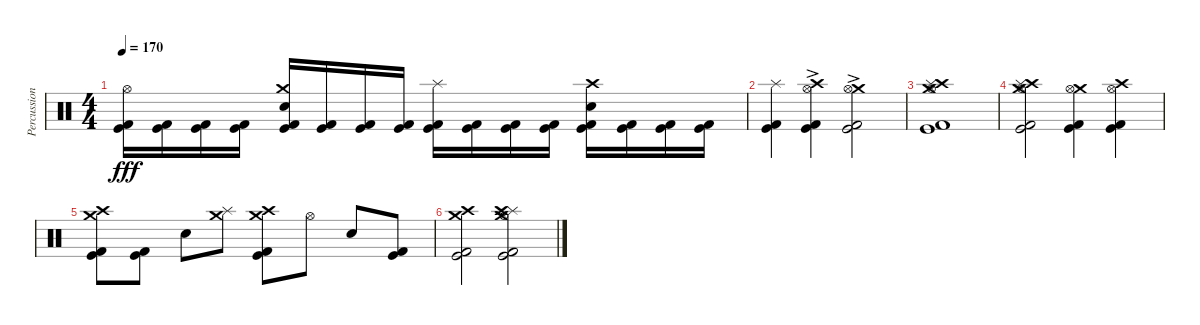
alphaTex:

\track ("Percussions" "Percussion") {instrument percussion}
\staff {score}
\articulation defaults
\ts (4 4)
\tempo 170
\clef neutral
\ks c
("Hi-Hat (open)" "Kick (hit)" "Kick (hit) 2").16{dy fff} ("Kick (hit)" "Kick (hit) 2").16 ("Kick (hit)" "Kick (hit) 2").16 ("Kick (hit)" "Kick (hit) 2").16 ("Crash medium (hit)" "Electric Snare (hit)" "Kick (hit)" "Kick (hit) 2").16 ("Kick (hit)" "Kick (hit) 2").16 ("Kick (hit)" "Kick (hit) 2").16 ("Kick (hit)" "Kick (hit) 2").16 ("Splash (hit)" "Kick (hit)" "Kick (hit) 2").16 ("Kick (hit)" "Kick (hit) 2").16 ("Kick (hit)" "Kick (hit) 2").16 ("Kick (hit)" "Kick (hit) 2").16 ("Crash high (hit)" "Electric Snare (hit)" "Kick (hit)" "Kick (hit) 2").16 ("Kick (hit)" "Kick (hit) 2").16 ("Kick (hit)" "Kick (hit) 2").16 ("Kick (hit)" "Kick (hit) 2").16 |
("Splash (hit)" "Kick (hit)" "Kick (hit) 2").4 ("Crash high (hit)" "Hi-Hat (open)" "Kick (hit)"{ac} "Kick (hit) 2"{ac}).4 ("Crash medium (hit)" "Hi-Hat (open)" "Kick (hit)"{ac} "Kick (hit) 2"{ac}).2 |
("Crash high (hit)" "Crash medium (hit)" "Splash (hit)" "Hi-Hat (open)" "Kick (hit)" "Kick (hit) 2").1 |
("Crash high (hit)" "Crash medium (hit)" "Splash (hit)" "Hi-Hat (open)" "Kick (hit)" "Kick (hit) 2").2 ("Crash medium (hit)" "Hi-Hat (open)" "Kick (hit)" "Kick (hit) 2").4 ("Crash high (hit)" "Hi-Hat (open)" "Kick (hit)" "Kick (hit) 2").4 |
("Crash medium (hit)" "Crash high (hit)" "Kick (hit)" "Kick (hit) 2").8 ("Kick (hit)" "Kick (hit) 2").8 "Electric Snare (hit)".8 ("Splash (hit)" "Crash medium (hit)").8 ("Crash high (hit)" "Crash medium (hit)" "Kick (hit)" "Kick (hit) 2").8 "Hi-Hat (open)".8 "Electric Snare (hit)".8 ("Kick (hit)" "Kick (hit) 2").8 |
("Crash high (hit)" "Crash medium (hit)" "Kick (hit)" "Kick (hit) 2").2 ("Splash (hit)" "Crash high (hit)" "Crash medium (hit)" "Hi-Hat (open)" "Kick (hit)" "Kick (hit) 2").2
